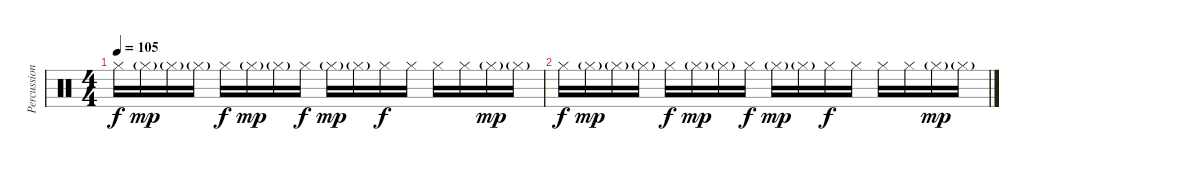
\track ("Percussions and Arrangements" "Percussion") {instrument percussion}
\staff {score}
\articulation defaults
\ts (4 4)
\tempo 105
\clef neutral
\ks c "Hi-Hat (closed)".16{dy f} "Hi-Hat (closed)"{g}.16{dy mp} "Hi-Hat (closed)"{g}.16 "Hi-Hat (closed)"{g}.16 "Hi-Hat (closed)".16{dy f} "Hi-Hat (closed)"{g}.16{dy mp} "Hi-Hat (closed)"{g}.16 "Hi-Hat (closed)".16{dy f} "Hi-Hat (closed)"{g}.16{dy mp} "Hi-Hat (closed)"{g}.16 "Hi-Hat (closed)".16{dy f} "Hi-Hat (closed)".16 "Hi-Hat (closed)".16 "Hi-Hat (closed)".16 "Hi-Hat (closed)"{g}.16{dy mp} "Hi-Hat (closed)"{g}.16
|
"Hi-Hat (closed)".16{dy f} "Hi-Hat (closed)"{g}.16{dy mp} "Hi-Hat (closed)"{g}.16 "Hi-Hat (closed)"{g}.16 "Hi-Hat (closed)".16{dy f} "Hi-Hat (closed)"{g}.16{dy mp} "Hi-Hat (closed)"{g}.16 "Hi-Hat (closed)".16{dy f} "Hi-Hat (closed)"{g}.16{dy mp} "Hi-Hat (closed)"{g}.16 "Hi-Hat (closed)".16{dy f} "Hi-Hat (closed)".16 "Hi-Hat (closed)".16 "Hi-Hat (closed)".16 "Hi-Hat (closed)"{g}.16{dy mp} "Hi-Hat (closed)"{g}.16
